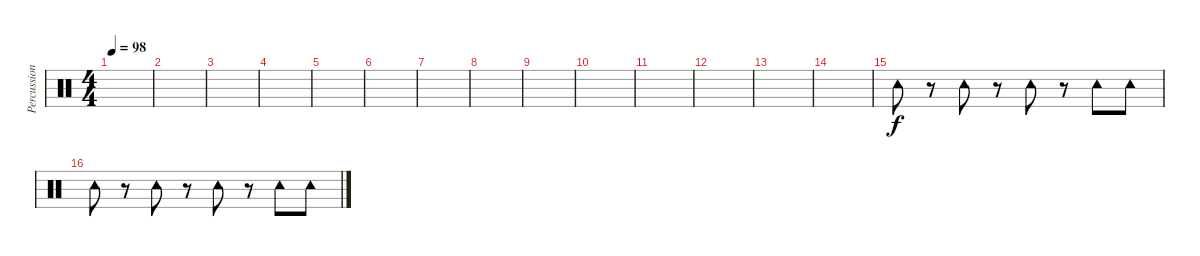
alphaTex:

\track ("Percussions" "Percussion") {instrument percussion}
\staff {score}
\articulation defaults
\ts (4 4)
\tempo 98
\clef neutral
\ks c
|
|
|
|
|
|
|
|
|
|
|
|
|
|
"Tambourine (hit)".8 r.8 "Tambourine (hit)".8 r.8 "Tambourine (hit)".8 r.8 "Tambourine (hit)".8 "Tambourine (hit)".8 |
"Tambourine (hit)".8 r.8 "Tambourine (hit)".8 r.8 "Tambourine (hit)".8 r.8 "Tambourine (hit)".8 "Tambourine (hit)".8
